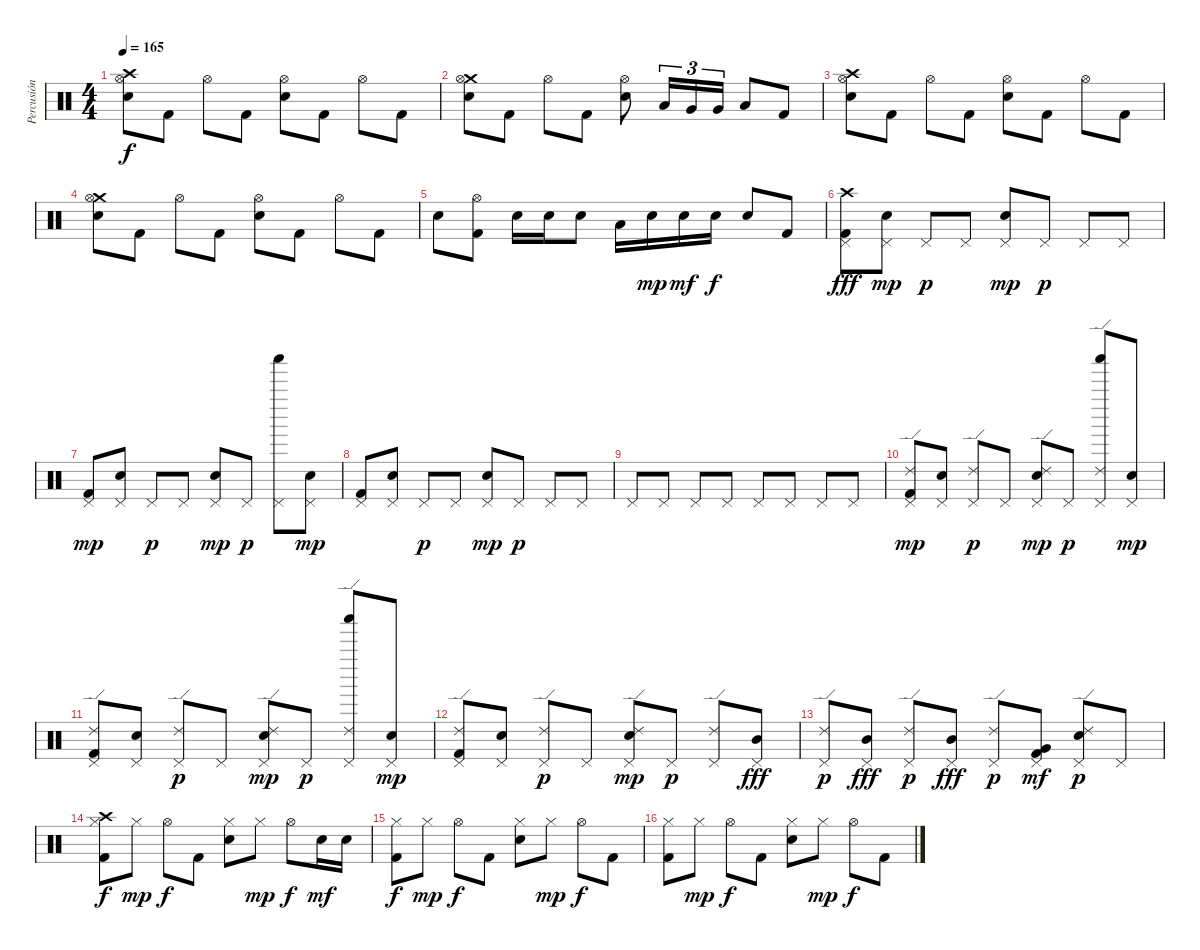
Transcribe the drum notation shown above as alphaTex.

\track ("Percusión" "Percusión") {instrument percussion}
\staff {score}
\articulation defaults
\ts (4 4)
\tempo 165
\clef neutral
\ks c
("Crash high (hit)" "Hi-Hat (open)" "Snare (hit) 2").8{dy f} "Kick (hit) 2".8 "Hi-Hat (open)".8 "Kick (hit) 2".8 ("Hi-Hat (open)" "Snare (hit) 2").8 "Kick (hit) 2".8 "Hi-Hat (open)".8 "Kick (hit) 2".8 |
("Crash medium (hit)" "Hi-Hat (open)" "Snare (hit) 2").8 "Kick (hit) 2".8 "Hi-Hat (open)".8 "Kick (hit) 2".8 ("Hi-Hat (open)" "Snare (hit) 2").8 "Low Tom (hit)".16{tu (3 2)} "Very Low Tom (hit)".16{tu (3 2)} "Very Low Tom (hit)".16{tu (3 2)} "Low Tom (hit)".8 "Kick (hit) 2".8 |
("Crash high (hit)" "Hi-Hat (open)" "Snare (hit) 2").8 "Kick (hit) 2".8 "Hi-Hat (open)".8 "Kick (hit) 2".8 ("Hi-Hat (open)" "Snare (hit) 2").8 "Kick (hit) 2".8 "Hi-Hat (open)".8 "Kick (hit) 2".8 |
("Crash medium (hit)" "Hi-Hat (open)" "Snare (hit) 2").8 "Kick (hit) 2".8 "Hi-Hat (open)".8 "Kick (hit) 2".8 ("Hi-Hat (open)" "Snare (hit) 2").8 "Kick (hit) 2".8 "Hi-Hat (open)".8 "Kick (hit) 2".8 |
"Snare (hit) 2".8 ("Hi-Hat (open)" "Kick (hit) 2").8 "Snare (hit) 2".16 "Snare (hit) 2".16 "Snare (hit) 2".8 "Low Tom (hit)".16 "Snare (hit) 2".16{dy mp} "Snare (hit) 2".16{dy mf} "Snare (hit) 2".16{dy f} "Snare (hit) 2".8 "Kick (hit) 2".8 |
("Crash high (hit)" "Pedal Hi-Hat (hit)" "Kick (hit) 2").8{dy fff} ("Pedal Hi-Hat (hit)" "Electric Snare (hit)").8{dy mp} "Pedal Hi-Hat (hit)".8{dy p} "Pedal Hi-Hat (hit)".8 ("Pedal Hi-Hat (hit)" "Electric Snare (hit)").8{dy mp} "Pedal Hi-Hat (hit)".8{dy p} "Pedal Hi-Hat (hit)".8 "Pedal Hi-Hat (hit)".8 |
("Pedal Hi-Hat (hit)" "Kick (hit) 2").8{dy mp} ("Pedal Hi-Hat (hit)" "Electric Snare (hit)").8 "Pedal Hi-Hat (hit)".8{dy p} "Pedal Hi-Hat (hit)".8 ("Pedal Hi-Hat (hit)" "Electric Snare (hit)").8{dy mp} "Pedal Hi-Hat (hit)".8{dy p} ("Pedal Hi-Hat (hit)" "Shaker (hit)").8 ("Pedal Hi-Hat (hit)" "Electric Snare (hit)").8{dy mp} |
("Pedal Hi-Hat (hit)" "Kick (hit) 2").8 ("Pedal Hi-Hat (hit)" "Electric Snare (hit)").8 "Pedal Hi-Hat (hit)".8{dy p} "Pedal Hi-Hat (hit)".8 ("Pedal Hi-Hat (hit)" "Electric Snare (hit)").8{dy mp} "Pedal Hi-Hat (hit)".8{dy p} "Pedal Hi-Hat (hit)".8 "Pedal Hi-Hat (hit)".8 |
"Pedal Hi-Hat (hit)".8 "Pedal Hi-Hat (hit)".8 "Pedal Hi-Hat (hit)".8 "Pedal Hi-Hat (hit)".8 "Pedal Hi-Hat (hit)".8 "Pedal Hi-Hat (hit)".8 "Pedal Hi-Hat (hit)".8 "Pedal Hi-Hat (hit)".8 |
("Ride (edge) 2" "Pedal Hi-Hat (hit)" "Kick (hit) 2").8{dy mp} ("Pedal Hi-Hat (hit)" "Electric Snare (hit)").8 ("Ride (edge) 2" "Pedal Hi-Hat (hit)").8{dy p} "Pedal Hi-Hat (hit)".8 ("Ride (edge) 2" "Pedal Hi-Hat (hit)" "Electric Snare (hit)").8{dy mp} "Pedal Hi-Hat (hit)".8{dy p} ("Ride (edge) 2" "Pedal Hi-Hat (hit)" "Shaker (hit)").8 ("Pedal Hi-Hat (hit)" "Electric Snare (hit)").8{dy mp} |
("Ride (edge) 2" "Pedal Hi-Hat (hit)" "Kick (hit) 2").8 ("Pedal Hi-Hat (hit)" "Electric Snare (hit)").8 ("Ride (edge) 2" "Pedal Hi-Hat (hit)").8{dy p} "Pedal Hi-Hat (hit)".8 ("Ride (edge) 2" "Pedal Hi-Hat (hit)" "Electric Snare (hit)").8{dy mp} "Pedal Hi-Hat (hit)".8{dy p} ("Ride (edge) 2" "Pedal Hi-Hat (hit)" "Shaker (hit)").8 ("Pedal Hi-Hat (hit)" "Electric Snare (hit)").8{dy mp} |
("Ride (edge) 2" "Pedal Hi-Hat (hit)" "Kick (hit) 2").8 ("Pedal Hi-Hat (hit)" "Electric Snare (hit)").8 ("Ride (edge) 2" "Pedal Hi-Hat (hit)").8{dy p} "Pedal Hi-Hat (hit)".8 ("Ride (edge) 2" "Pedal Hi-Hat (hit)" "Electric Snare (hit)").8{dy mp} "Pedal Hi-Hat (hit)".8{dy p} ("Ride (edge) 2" "Pedal Hi-Hat (hit)").8 ("Pedal Hi-Hat (hit)" "Mid Tom (hit)").8{dy fff} |
("Ride (edge) 2" "Pedal Hi-Hat (hit)").8{dy p} ("Pedal Hi-Hat (hit)" "Mid Tom (hit)").8{dy fff} ("Ride (edge) 2" "Pedal Hi-Hat (hit)").8{dy p} ("Pedal Hi-Hat (hit)" "Mid Tom (hit)").8{dy fff} ("Ride (edge) 2" "Pedal Hi-Hat (hit)").8{dy p} ("Pedal Hi-Hat (hit)" "Kick (hit) 2" "Very Low Tom (hit)").8{dy mf} ("Ride (edge) 2" "Pedal Hi-Hat (hit)" "Snare (hit) 2").8{dy p} "Pedal Hi-Hat (hit)".8 |
("Crash high (hit)" "Hi-Hat (closed)" "Kick (hit) 2").8{dy f} "Hi-Hat (closed)".8{dy mp} "Hi-Hat (open)".8{dy f} "Kick (hit) 2".8 ("Hi-Hat (closed)" "Electric Snare (hit)").8 "Hi-Hat (closed)".8{dy mp} "Hi-Hat (open)".8{dy f} "Electric Snare (hit)".16{dy mf} "Electric Snare (hit)".16 |
("Hi-Hat (closed)" "Kick (hit) 2").8{dy f} "Hi-Hat (closed)".8{dy mp} "Hi-Hat (open)".8{dy f} "Kick (hit) 2".8 ("Hi-Hat (closed)" "Electric Snare (hit)").8 "Hi-Hat (closed)".8{dy mp} "Hi-Hat (open)".8{dy f} "Kick (hit) 2".8 |
("Hi-Hat (closed)" "Kick (hit) 2").8 "Hi-Hat (closed)".8{dy mp} "Hi-Hat (open)".8{dy f} "Kick (hit) 2".8 ("Hi-Hat (closed)" "Electric Snare (hit)").8 "Hi-Hat (closed)".8{dy mp} "Hi-Hat (open)".8{dy f} "Kick (hit) 2".8
